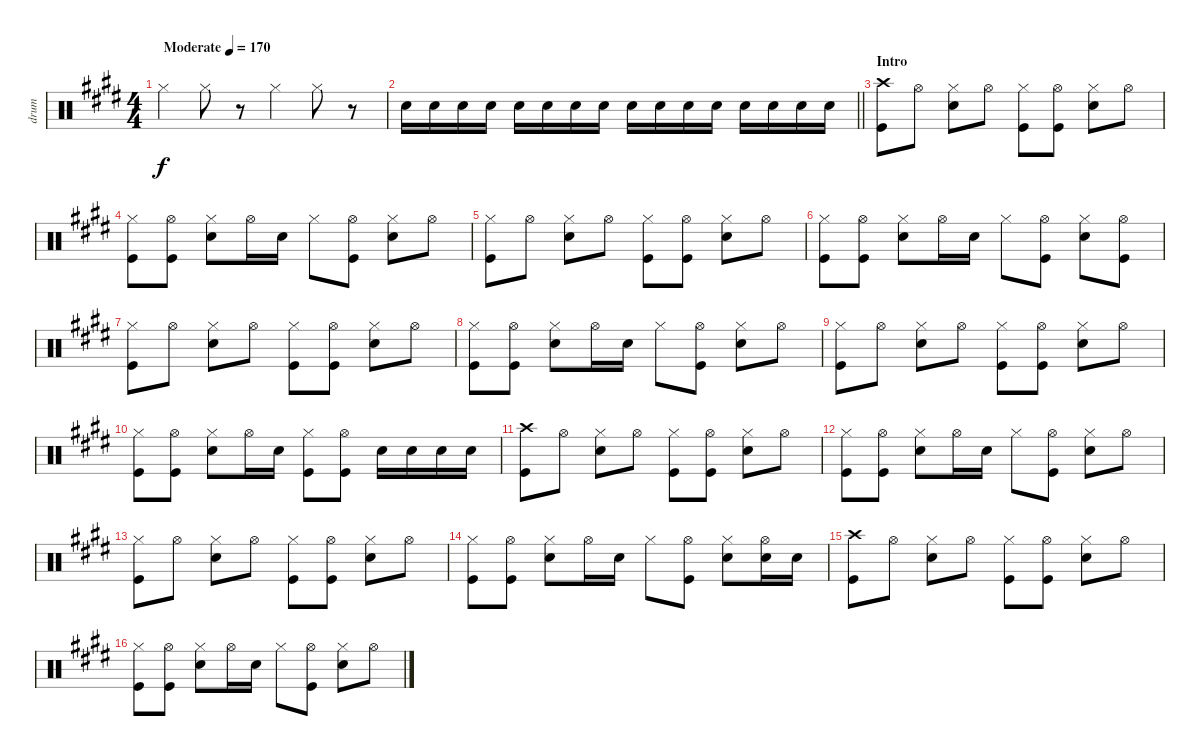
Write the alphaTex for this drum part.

\track ("drum" "drum") {instrument percussion}
\staff {score}
\articulation defaults
\ts (4 4)
\tempo (170 "Moderate")
\clef neutral
\ks e "Hi-Hat (closed)".4{dy f} "Hi-Hat (closed)".8
r.8 "Hi-Hat (closed)".4 "Hi-Hat (closed)".8 r.8 |
\barLineRight lightlight "Snare (hit) 2".16 "Snare (hit) 2".16 "Snare (hit) 2".16 "Snare (hit) 2".16 "Snare (hit) 2".16 "Snare (hit) 2".16 "Snare (hit) 2".16 "Snare (hit) 2".16 "Snare (hit) 2".16 "Snare (hit) 2".16 "Snare (hit) 2".16 "Snare (hit) 2".16 "Snare (hit) 2".16 "Snare (hit) 2".16 "Snare (hit) 2".16 "Snare (hit) 2".16
|
\section ("" "Intro")
("Crash high (hit)" "Kick (hit)").8 "Hi-Hat (open)".8 ("Hi-Hat (closed)" "Snare (hit) 2").8 "Hi-Hat (open)".8 ("Hi-Hat (closed)" "Kick (hit)").8 ("Hi-Hat (open)" "Kick (hit)").8 ("Hi-Hat (closed)" "Snare (hit) 2").8 "Hi-Hat (open)".8 |
("Hi-Hat (closed)" "Kick (hit)").8 ("Hi-Hat (open)" "Kick (hit)").8 ("Hi-Hat (closed)" "Snare (hit) 2").8 "Hi-Hat (open)".16 "Snare (hit) 2".16 "Hi-Hat (closed)".8 ("Hi-Hat (open)" "Kick (hit)").8 ("Hi-Hat (closed)" "Snare (hit) 2").8 "Hi-Hat (open)".8 |
("Hi-Hat (closed)" "Kick (hit)").8 "Hi-Hat (open)".8 ("Hi-Hat (closed)" "Snare (hit) 2").8 "Hi-Hat (open)".8 ("Hi-Hat (closed)" "Kick (hit)").8 ("Hi-Hat (open)" "Kick (hit)").8 ("Hi-Hat (closed)" "Snare (hit) 2").8 "Hi-Hat (open)".8 |
("Hi-Hat (closed)" "Kick (hit)").8 ("Hi-Hat (open)" "Kick (hit)").8 ("Hi-Hat (closed)" "Snare (hit) 2").8 "Hi-Hat (open)".16 "Snare (hit) 2".16 "Hi-Hat (closed)".8 ("Hi-Hat (open)" "Kick (hit)").8 ("Hi-Hat (closed)" "Snare (hit) 2").8 ("Hi-Hat (open)" "Kick (hit)").8 |
("Hi-Hat (closed)" "Kick (hit)").8 "Hi-Hat (open)".8 ("Hi-Hat (closed)" "Snare (hit) 2").8 "Hi-Hat (open)".8 ("Hi-Hat (closed)" "Kick (hit)").8 ("Hi-Hat (open)" "Kick (hit)").8 ("Hi-Hat (closed)" "Snare (hit) 2").8 "Hi-Hat (open)".8 |
("Hi-Hat (closed)" "Kick (hit)").8 ("Hi-Hat (open)" "Kick (hit)").8 ("Hi-Hat (closed)" "Snare (hit) 2").8 "Hi-Hat (open)".16 "Snare (hit) 2".16 "Hi-Hat (closed)".8 ("Hi-Hat (open)" "Kick (hit)").8 ("Hi-Hat (closed)" "Snare (hit) 2").8 "Hi-Hat (open)".8 |
("Hi-Hat (closed)" "Kick (hit)").8 "Hi-Hat (open)".8 ("Hi-Hat (closed)" "Snare (hit) 2").8 "Hi-Hat (open)".8 ("Hi-Hat (closed)" "Kick (hit)").8 ("Hi-Hat (open)" "Kick (hit)").8 ("Hi-Hat (closed)" "Snare (hit) 2").8 "Hi-Hat (open)".8 |
("Hi-Hat (closed)" "Kick (hit)").8 ("Hi-Hat (open)" "Kick (hit)").8 ("Hi-Hat (closed)" "Snare (hit) 2").8 "Hi-Hat (open)".16 "Snare (hit) 2".16 ("Hi-Hat (closed)" "Kick (hit)").8 ("Hi-Hat (open)" "Kick (hit)").8 "Snare (hit) 2".16 "Snare (hit) 2".16 "Snare (hit) 2".16 "Snare (hit) 2".16 |
("Crash high (hit)" "Kick (hit)").8 "Hi-Hat (open)".8 ("Hi-Hat (closed)" "Snare (hit) 2").8 "Hi-Hat (open)".8 ("Hi-Hat (closed)" "Kick (hit)").8 ("Hi-Hat (open)" "Kick (hit)").8 ("Hi-Hat (closed)" "Snare (hit) 2").8 "Hi-Hat (open)".8 |
("Hi-Hat (closed)" "Kick (hit)").8 ("Hi-Hat (open)" "Kick (hit)").8 ("Hi-Hat (closed)" "Snare (hit) 2").8 "Hi-Hat (open)".16 "Snare (hit) 2".16 "Hi-Hat (closed)".8 ("Hi-Hat (open)" "Kick (hit)").8 ("Hi-Hat (closed)" "Snare (hit) 2").8 "Hi-Hat (open)".8 |
("Hi-Hat (closed)" "Kick (hit)").8 "Hi-Hat (open)".8 ("Hi-Hat (closed)" "Snare (hit) 2").8 "Hi-Hat (open)".8 ("Hi-Hat (closed)" "Kick (hit)").8 ("Hi-Hat (open)" "Kick (hit)").8 ("Hi-Hat (closed)" "Snare (hit) 2").8 "Hi-Hat (open)".8 |
("Hi-Hat (closed)" "Kick (hit)").8 ("Hi-Hat (open)" "Kick (hit)").8 ("Hi-Hat (closed)" "Snare (hit) 2").8 "Hi-Hat (open)".16 "Snare (hit) 2".16 "Hi-Hat (closed)".8 ("Hi-Hat (open)" "Kick (hit)").8 ("Hi-Hat (closed)" "Snare (hit) 2").8 ("Hi-Hat (open)" "Snare (hit) 2").16 "Snare (hit) 2".16 |
("Crash high (hit)" "Kick (hit)").8 "Hi-Hat (open)".8 ("Hi-Hat (closed)" "Snare (hit) 2").8 "Hi-Hat (open)".8 ("Hi-Hat (closed)" "Kick (hit)").8 ("Hi-Hat (open)" "Kick (hit)").8 ("Hi-Hat (closed)" "Snare (hit) 2").8 "Hi-Hat (open)".8 |
("Hi-Hat (closed)" "Kick (hit)").8 ("Hi-Hat (open)" "Kick (hit)").8 ("Hi-Hat (closed)" "Snare (hit) 2").8 "Hi-Hat (open)".16 "Snare (hit) 2".16 "Hi-Hat (closed)".8 ("Hi-Hat (open)" "Kick (hit)").8 ("Hi-Hat (closed)" "Snare (hit) 2").8 "Hi-Hat (open)".8
